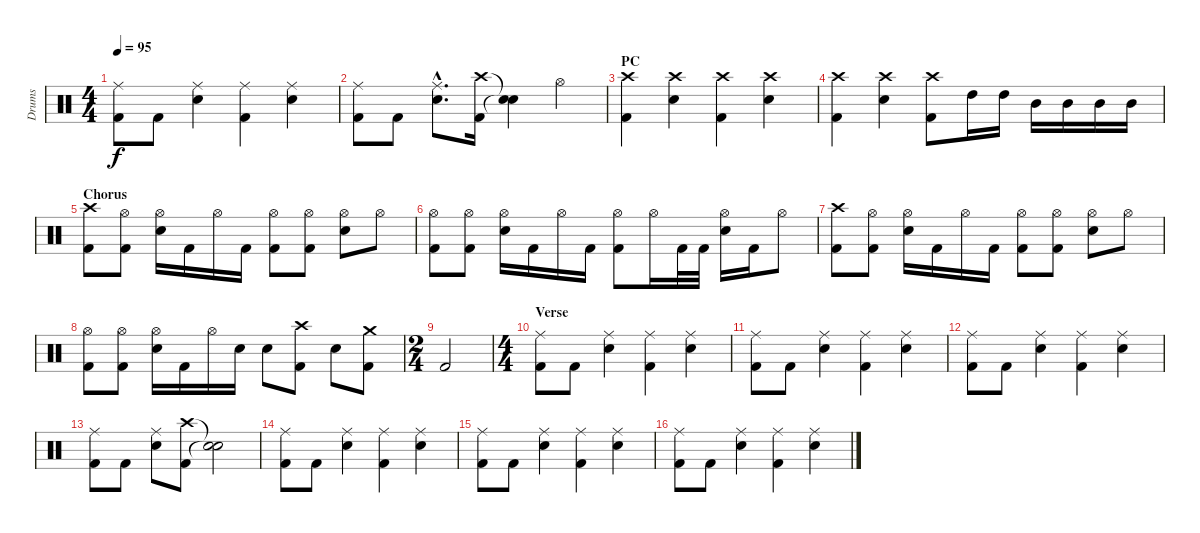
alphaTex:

\track ("Drums" "Drums") {instrument percussion}
\staff {score}
\articulation defaults
\ts (4 4)
\tempo 95
\clef neutral
\ks c
("Ride (middle)" "Kick (hit) 2").8{dy f} "Kick (hit) 2".8 ("Ride (middle)" "Electric Snare (hit)").4 ("Ride (middle)" "Kick (hit) 2").4 ("Ride (middle)" "Electric Snare (hit)").4 |
("Ride (middle)" "Kick (hit) 2").8 "Kick (hit) 2".8 ("Ride (middle)"{hac} "Electric Snare (hit)"{hac}).8{d} ("Crash high (hit)" "Kick (hit) 2").16 ("Snare (hit)"{t} "Snare (hit)"{t}).4 "Hi-Hat (open)".4 |
\section ("" "PC")
("Crash high (hit)" "Kick (hit) 2").4 ("Crash high (hit)" "Electric Snare (hit)").4 ("Crash high (hit)" "Kick (hit) 2").4 ("Crash high (hit)" "Electric Snare (hit)").4 |
("Crash high (hit)" "Kick (hit) 2").4 ("Crash high (hit)" "Electric Snare (hit)").4 ("Crash high (hit)" "Kick (hit) 2").8 "High Tom (hit)".16 "High Tom (hit)".16 "Mid Tom (hit)".16 "Mid Tom (hit)".16 "Mid Tom (hit)".16 "Mid Tom (hit)".16 |
\section ("" "Chorus")
("Crash high (hit)" "Kick (hit) 2").8 ("Hi-Hat (open)" "Kick (hit) 2").8 ("Hi-Hat (open)" "Electric Snare (hit)").16 "Kick (hit) 2".16 "Hi-Hat (open)".16 "Kick (hit) 2".16 ("Hi-Hat (open)" "Kick (hit) 2").8 ("Hi-Hat (open)" "Kick (hit) 2").8 ("Hi-Hat (open)" "Electric Snare (hit)").8 "Hi-Hat (open)".8 |
("Hi-Hat (open)" "Kick (hit) 2").8 ("Hi-Hat (open)" "Kick (hit) 2").8 ("Hi-Hat (open)" "Electric Snare (hit)").16 "Kick (hit) 2".16 "Hi-Hat (open)".16 "Kick (hit) 2".16 ("Hi-Hat (open)" "Kick (hit) 2").8 "Hi-Hat (open)".16 "Kick (hit) 2".32 "Kick (hit) 2".32 ("Hi-Hat (open)" "Electric Snare (hit)").16 "Kick (hit) 2".16 "Hi-Hat (open)".8 |
("Crash high (hit)" "Kick (hit) 2").8 ("Hi-Hat (open)" "Kick (hit) 2").8 ("Hi-Hat (open)" "Electric Snare (hit)").16 "Kick (hit) 2".16 "Hi-Hat (open)".16 "Kick (hit) 2".16 ("Hi-Hat (open)" "Kick (hit) 2").8 ("Hi-Hat (open)" "Kick (hit) 2").8 ("Hi-Hat (open)" "Electric Snare (hit)").8 "Hi-Hat (open)".8 |
("Hi-Hat (open)" "Kick (hit) 2").8 ("Hi-Hat (open)" "Kick (hit) 2").8 ("Hi-Hat (open)" "Electric Snare (hit)").16 "Kick (hit) 2".16 "Hi-Hat (open)".16 "Electric Snare (hit)".16 "Electric Snare (hit)".8 ("Crash high (hit)" "Kick (hit) 2").8 "Electric Snare (hit)".8 ("Crash medium (hit)" "Kick (hit) 2").8 |
\ts (2 4)
\section ("" "")
"Kick (hit) 2".2 |
\ts (4 4)
\section ("" "Verse")
("Ride (middle)" "Kick (hit) 2").8 "Kick (hit) 2".8 ("Ride (middle)" "Electric Snare (hit)").4 ("Ride (middle)" "Kick (hit) 2").4 ("Ride (middle)" "Electric Snare (hit)").4 |
("Ride (middle)" "Kick (hit) 2").8 "Kick (hit) 2".8 ("Ride (middle)" "Electric Snare (hit)").4 ("Ride (middle)" "Kick (hit) 2").4 ("Ride (middle)" "Electric Snare (hit)").4 |
("Ride (middle)" "Kick (hit) 2").8 "Kick (hit) 2".8 ("Ride (middle)" "Electric Snare (hit)").4 ("Ride (middle)" "Kick (hit) 2").4 ("Ride (middle)" "Electric Snare (hit)").4 |
("Ride (middle)" "Kick (hit) 2").8 "Kick (hit) 2".8 ("Ride (middle)" "Electric Snare (hit)").8 ("Crash high (hit)" "Kick (hit) 2").8 ("Snare (hit)"{t} "Snare (hit)"{t}).2 |
("Ride (middle)" "Kick (hit) 2").8 "Kick (hit) 2".8 ("Ride (middle)" "Electric Snare (hit)").4 ("Ride (middle)" "Kick (hit) 2").4 ("Ride (middle)" "Electric Snare (hit)").4 |
("Ride (middle)" "Kick (hit) 2").8 "Kick (hit) 2".8 ("Ride (middle)" "Electric Snare (hit)").4 ("Ride (middle)" "Kick (hit) 2").4 ("Ride (middle)" "Electric Snare (hit)").4 |
("Ride (middle)" "Kick (hit) 2").8 "Kick (hit) 2".8 ("Ride (middle)" "Electric Snare (hit)").4 ("Ride (middle)" "Kick (hit) 2").4 ("Ride (middle)" "Electric Snare (hit)").4
